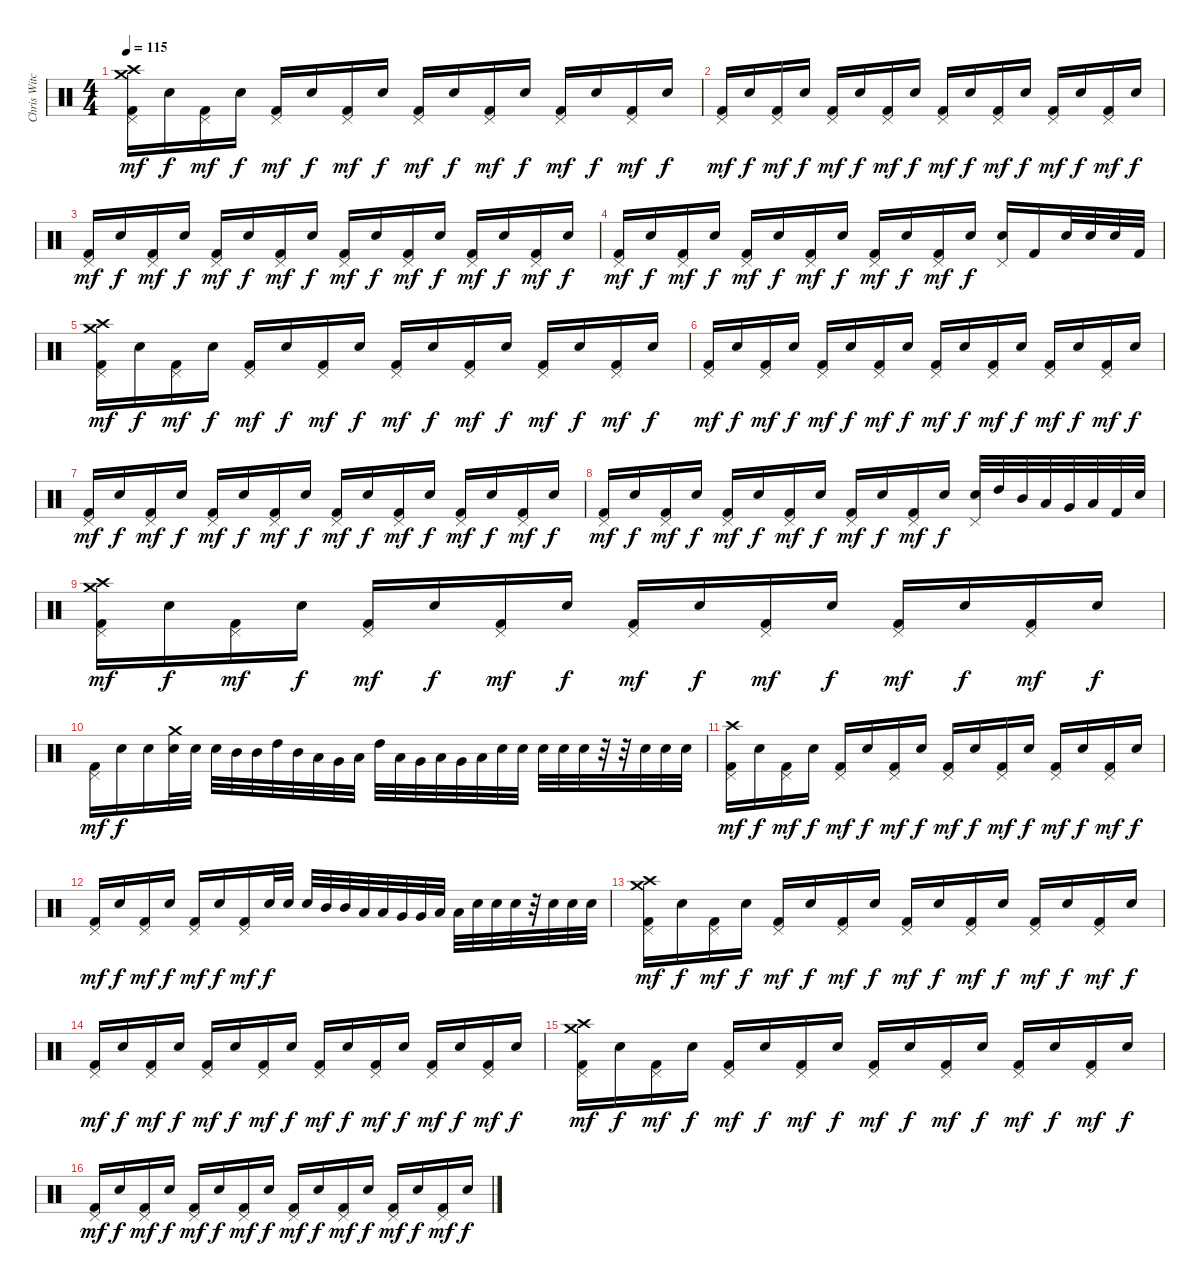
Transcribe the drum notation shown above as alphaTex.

\track ("Chris Witchhunter (Drums)" "Chris Witc") {instrument percussion}
\staff {score}
\articulation defaults
\ts (4 4)
\tempo 115
\clef neutral
\ks c
("Crash high (hit)" "Crash medium (hit)" "Pedal Hi-Hat (hit)" "Kick (hit) 2").16{dy mf} "Snare (hit) 2".16{dy f} ("Pedal Hi-Hat (hit)" "Kick (hit) 2").16{dy mf} "Snare (hit) 2".16{dy f} ("Pedal Hi-Hat (hit)" "Kick (hit) 2").16{dy mf} "Snare (hit) 2".16{dy f} ("Pedal Hi-Hat (hit)" "Kick (hit) 2").16{dy mf} "Snare (hit) 2".16{dy f} ("Pedal Hi-Hat (hit)" "Kick (hit) 2").16{dy mf} "Snare (hit) 2".16{dy f} ("Pedal Hi-Hat (hit)" "Kick (hit) 2").16{dy mf} "Snare (hit) 2".16{dy f} ("Pedal Hi-Hat (hit)" "Kick (hit) 2").16{dy mf} "Snare (hit) 2".16{dy f} ("Pedal Hi-Hat (hit)" "Kick (hit) 2").16{dy mf} "Snare (hit) 2".16{dy f} |
("Pedal Hi-Hat (hit)" "Kick (hit) 2").16{dy mf} "Snare (hit) 2".16{dy f} ("Pedal Hi-Hat (hit)" "Kick (hit) 2").16{dy mf} "Snare (hit) 2".16{dy f} ("Pedal Hi-Hat (hit)" "Kick (hit) 2").16{dy mf} "Snare (hit) 2".16{dy f} ("Pedal Hi-Hat (hit)" "Kick (hit) 2").16{dy mf} "Snare (hit) 2".16{dy f} ("Pedal Hi-Hat (hit)" "Kick (hit) 2").16{dy mf} "Snare (hit) 2".16{dy f} ("Pedal Hi-Hat (hit)" "Kick (hit) 2").16{dy mf} "Snare (hit) 2".16{dy f} ("Pedal Hi-Hat (hit)" "Kick (hit) 2").16{dy mf} "Snare (hit) 2".16{dy f} ("Pedal Hi-Hat (hit)" "Kick (hit) 2").16{dy mf} "Snare (hit) 2".16{dy f} |
("Pedal Hi-Hat (hit)" "Kick (hit) 2").16{dy mf} "Snare (hit) 2".16{dy f} ("Pedal Hi-Hat (hit)" "Kick (hit) 2").16{dy mf} "Snare (hit) 2".16{dy f} ("Pedal Hi-Hat (hit)" "Kick (hit) 2").16{dy mf} "Snare (hit) 2".16{dy f} ("Pedal Hi-Hat (hit)" "Kick (hit) 2").16{dy mf} "Snare (hit) 2".16{dy f} ("Pedal Hi-Hat (hit)" "Kick (hit) 2").16{dy mf} "Snare (hit) 2".16{dy f} ("Pedal Hi-Hat (hit)" "Kick (hit) 2").16{dy mf} "Snare (hit) 2".16{dy f} ("Pedal Hi-Hat (hit)" "Kick (hit) 2").16{dy mf} "Snare (hit) 2".16{dy f} ("Pedal Hi-Hat (hit)" "Kick (hit) 2").16{dy mf} "Snare (hit) 2".16{dy f} |
("Pedal Hi-Hat (hit)" "Kick (hit) 2").16{dy mf} "Snare (hit) 2".16{dy f} ("Pedal Hi-Hat (hit)" "Kick (hit) 2").16{dy mf} "Snare (hit) 2".16{dy f} ("Pedal Hi-Hat (hit)" "Kick (hit) 2").16{dy mf} "Snare (hit) 2".16{dy f} ("Pedal Hi-Hat (hit)" "Kick (hit) 2").16{dy mf} "Snare (hit) 2".16{dy f} ("Pedal Hi-Hat (hit)" "Kick (hit) 2").16{dy mf} "Snare (hit) 2".16{dy f} ("Pedal Hi-Hat (hit)" "Kick (hit) 2").16{dy mf} "Snare (hit) 2".16{dy f} ("Pedal Hi-Hat (hit)" "Snare (hit) 2").16 "Kick (hit) 2".16 "Snare (hit) 2".32 "Snare (hit) 2".32 "Snare (hit) 2".32 "Kick (hit) 2".32 |
("Crash high (hit)" "Crash medium (hit)" "Pedal Hi-Hat (hit)" "Kick (hit) 2").16{dy mf} "Snare (hit) 2".16{dy f} ("Pedal Hi-Hat (hit)" "Kick (hit) 2").16{dy mf} "Snare (hit) 2".16{dy f} ("Pedal Hi-Hat (hit)" "Kick (hit) 2").16{dy mf} "Snare (hit) 2".16{dy f} ("Pedal Hi-Hat (hit)" "Kick (hit) 2").16{dy mf} "Snare (hit) 2".16{dy f} ("Pedal Hi-Hat (hit)" "Kick (hit) 2").16{dy mf} "Snare (hit) 2".16{dy f} ("Pedal Hi-Hat (hit)" "Kick (hit) 2").16{dy mf} "Snare (hit) 2".16{dy f} ("Pedal Hi-Hat (hit)" "Kick (hit) 2").16{dy mf} "Snare (hit) 2".16{dy f} ("Pedal Hi-Hat (hit)" "Kick (hit) 2").16{dy mf} "Snare (hit) 2".16{dy f} |
("Pedal Hi-Hat (hit)" "Kick (hit) 2").16{dy mf} "Snare (hit) 2".16{dy f} ("Pedal Hi-Hat (hit)" "Kick (hit) 2").16{dy mf} "Snare (hit) 2".16{dy f} ("Pedal Hi-Hat (hit)" "Kick (hit) 2").16{dy mf} "Snare (hit) 2".16{dy f} ("Pedal Hi-Hat (hit)" "Kick (hit) 2").16{dy mf} "Snare (hit) 2".16{dy f} ("Pedal Hi-Hat (hit)" "Kick (hit) 2").16{dy mf} "Snare (hit) 2".16{dy f} ("Pedal Hi-Hat (hit)" "Kick (hit) 2").16{dy mf} "Snare (hit) 2".16{dy f} ("Pedal Hi-Hat (hit)" "Kick (hit) 2").16{dy mf} "Snare (hit) 2".16{dy f} ("Pedal Hi-Hat (hit)" "Kick (hit) 2").16{dy mf} "Snare (hit) 2".16{dy f} |
("Pedal Hi-Hat (hit)" "Kick (hit) 2").16{dy mf} "Snare (hit) 2".16{dy f} ("Pedal Hi-Hat (hit)" "Kick (hit) 2").16{dy mf} "Snare (hit) 2".16{dy f} ("Pedal Hi-Hat (hit)" "Kick (hit) 2").16{dy mf} "Snare (hit) 2".16{dy f} ("Pedal Hi-Hat (hit)" "Kick (hit) 2").16{dy mf} "Snare (hit) 2".16{dy f} ("Pedal Hi-Hat (hit)" "Kick (hit) 2").16{dy mf} "Snare (hit) 2".16{dy f} ("Pedal Hi-Hat (hit)" "Kick (hit) 2").16{dy mf} "Snare (hit) 2".16{dy f} ("Pedal Hi-Hat (hit)" "Kick (hit) 2").16{dy mf} "Snare (hit) 2".16{dy f} ("Pedal Hi-Hat (hit)" "Kick (hit) 2").16{dy mf} "Snare (hit) 2".16{dy f} |
("Pedal Hi-Hat (hit)" "Kick (hit) 2").16{dy mf} "Snare (hit) 2".16{dy f} ("Pedal Hi-Hat (hit)" "Kick (hit) 2").16{dy mf} "Snare (hit) 2".16{dy f} ("Pedal Hi-Hat (hit)" "Kick (hit) 2").16{dy mf} "Snare (hit) 2".16{dy f} ("Pedal Hi-Hat (hit)" "Kick (hit) 2").16{dy mf} "Snare (hit) 2".16{dy f} ("Pedal Hi-Hat (hit)" "Kick (hit) 2").16{dy mf} "Snare (hit) 2".16{dy f} ("Pedal Hi-Hat (hit)" "Kick (hit) 2").16{dy mf} "Snare (hit) 2".16{dy f} ("Pedal Hi-Hat (hit)" "Snare (hit) 2").32 "High Tom (hit)".32 "Mid Tom (hit)".32 "Low Tom (hit)".32 "Very Low Tom (hit)".32 "Low Floor Tom (hit)".32 "Kick (hit) 2".32 "Snare (hit) 2".32 |
("Crash high (hit)" "Crash medium (hit)" "Pedal Hi-Hat (hit)" "Kick (hit) 2").16{dy mf} "Snare (hit) 2".16{dy f} ("Pedal Hi-Hat (hit)" "Kick (hit) 2").16{dy mf} "Snare (hit) 2".16{dy f} ("Pedal Hi-Hat (hit)" "Kick (hit) 2").16{dy mf} "Snare (hit) 2".16{dy f} ("Pedal Hi-Hat (hit)" "Kick (hit) 2").16{dy mf} "Snare (hit) 2".16{dy f} ("Pedal Hi-Hat (hit)" "Kick (hit) 2").16{dy mf} "Snare (hit) 2".16{dy f} ("Pedal Hi-Hat (hit)" "Kick (hit) 2").16{dy mf} "Snare (hit) 2".16{dy f} ("Pedal Hi-Hat (hit)" "Kick (hit) 2").16{dy mf} "Snare (hit) 2".16{dy f} ("Pedal Hi-Hat (hit)" "Kick (hit) 2").16{dy mf} "Snare (hit) 2".16{dy f} |
("Pedal Hi-Hat (hit)" "Kick (hit) 2").16{dy mf} "Snare (hit) 2".16{dy f} "Snare (hit) 2".16 ("Crash medium (hit)" "Snare (hit) 2").32 "Snare (hit) 2".32 "Snare (hit) 2".32 "Mid Tom (hit)".32 "Mid Tom (hit)".32 "High Tom (hit)".32 "Mid Tom (hit)".32 "Low Tom (hit)".32 "Very Low Tom (hit)".32 "Low Floor Tom (hit)".32 "High Tom (hit)".32 "Low Tom (hit)".32 "Very Low Tom (hit)".32 "Low Floor Tom (hit)".32 "Very Low Tom (hit)".32 "Low Floor Tom (hit)".32 "Snare (hit) 2".32 "Snare (hit) 2".32 "Snare (hit) 2".32 "Snare (hit) 2".32 "Snare (hit) 2".32 r.32 r.32 "Snare (hit) 2".32 "Snare (hit) 2".32 "Snare (hit) 2".32 |
("Crash high (hit)" "Pedal Hi-Hat (hit)" "Kick (hit) 2").16{dy mf} "Snare (hit) 2".16{dy f} ("Pedal Hi-Hat (hit)" "Kick (hit) 2").16{dy mf} "Snare (hit) 2".16{dy f} ("Pedal Hi-Hat (hit)" "Kick (hit) 2").16{dy mf} "Snare (hit) 2".16{dy f} ("Pedal Hi-Hat (hit)" "Kick (hit) 2").16{dy mf} "Snare (hit) 2".16{dy f} ("Pedal Hi-Hat (hit)" "Kick (hit) 2").16{dy mf} "Snare (hit) 2".16{dy f} ("Pedal Hi-Hat (hit)" "Kick (hit) 2").16{dy mf} "Snare (hit) 2".16{dy f} ("Pedal Hi-Hat (hit)" "Kick (hit) 2").16{dy mf} "Snare (hit) 2".16{dy f} ("Pedal Hi-Hat (hit)" "Kick (hit) 2").16{dy mf} "Snare (hit) 2".16{dy f} |
("Pedal Hi-Hat (hit)" "Kick (hit) 2").16{dy mf} "Snare (hit) 2".16{dy f} ("Pedal Hi-Hat (hit)" "Kick (hit) 2").16{dy mf} "Snare (hit) 2".16{dy f} ("Pedal Hi-Hat (hit)" "Kick (hit) 2").16{dy mf} "Snare (hit) 2".16{dy f} ("Pedal Hi-Hat (hit)" "Kick (hit) 2").16{dy mf} "Snare (hit) 2".32{dy f} "Snare (hit) 2".32 "Snare (hit) 2".32 "Mid Tom (hit)".32 "Mid Tom (hit)".32 "Low Tom (hit)".32 "Low Tom (hit)".32 "Very Low Tom (hit)".32 "Very Low Tom (hit)".32 "Low Floor Tom (hit)".32 "Low Floor Tom (hit)".32 "Snare (hit) 2".32 "Snare (hit) 2".32 "Snare (hit) 2".32 r.32 "Snare (hit) 2".32 "Snare (hit) 2".32 "Snare (hit) 2".32 |
("Crash high (hit)" "Crash medium (hit)" "Pedal Hi-Hat (hit)" "Kick (hit) 2").16{dy mf} "Snare (hit) 2".16{dy f} ("Pedal Hi-Hat (hit)" "Kick (hit) 2").16{dy mf} "Snare (hit) 2".16{dy f} ("Pedal Hi-Hat (hit)" "Kick (hit) 2").16{dy mf} "Snare (hit) 2".16{dy f} ("Pedal Hi-Hat (hit)" "Kick (hit) 2").16{dy mf} "Snare (hit) 2".16{dy f} ("Pedal Hi-Hat (hit)" "Kick (hit) 2").16{dy mf} "Snare (hit) 2".16{dy f} ("Pedal Hi-Hat (hit)" "Kick (hit) 2").16{dy mf} "Snare (hit) 2".16{dy f} ("Pedal Hi-Hat (hit)" "Kick (hit) 2").16{dy mf} "Snare (hit) 2".16{dy f} ("Pedal Hi-Hat (hit)" "Kick (hit) 2").16{dy mf} "Snare (hit) 2".16{dy f} |
("Pedal Hi-Hat (hit)" "Kick (hit) 2").16{dy mf} "Snare (hit) 2".16{dy f} ("Pedal Hi-Hat (hit)" "Kick (hit) 2").16{dy mf} "Snare (hit) 2".16{dy f} ("Pedal Hi-Hat (hit)" "Kick (hit) 2").16{dy mf} "Snare (hit) 2".16{dy f} ("Pedal Hi-Hat (hit)" "Kick (hit) 2").16{dy mf} "Snare (hit) 2".16{dy f} ("Pedal Hi-Hat (hit)" "Kick (hit) 2").16{dy mf} "Snare (hit) 2".16{dy f} ("Pedal Hi-Hat (hit)" "Kick (hit) 2").16{dy mf} "Snare (hit) 2".16{dy f} ("Pedal Hi-Hat (hit)" "Kick (hit) 2").16{dy mf} "Snare (hit) 2".16{dy f} ("Pedal Hi-Hat (hit)" "Kick (hit) 2").16{dy mf} "Snare (hit) 2".16{dy f} |
("Crash high (hit)" "Crash medium (hit)" "Pedal Hi-Hat (hit)" "Kick (hit) 2").16{dy mf} "Snare (hit) 2".16{dy f} ("Pedal Hi-Hat (hit)" "Kick (hit) 2").16{dy mf} "Snare (hit) 2".16{dy f} ("Pedal Hi-Hat (hit)" "Kick (hit) 2").16{dy mf} "Snare (hit) 2".16{dy f} ("Pedal Hi-Hat (hit)" "Kick (hit) 2").16{dy mf} "Snare (hit) 2".16{dy f} ("Pedal Hi-Hat (hit)" "Kick (hit) 2").16{dy mf} "Snare (hit) 2".16{dy f} ("Pedal Hi-Hat (hit)" "Kick (hit) 2").16{dy mf} "Snare (hit) 2".16{dy f} ("Pedal Hi-Hat (hit)" "Kick (hit) 2").16{dy mf} "Snare (hit) 2".16{dy f} ("Pedal Hi-Hat (hit)" "Kick (hit) 2").16{dy mf} "Snare (hit) 2".16{dy f} |
("Pedal Hi-Hat (hit)" "Kick (hit) 2").16{dy mf} "Snare (hit) 2".16{dy f} ("Pedal Hi-Hat (hit)" "Kick (hit) 2").16{dy mf} "Snare (hit) 2".16{dy f} ("Pedal Hi-Hat (hit)" "Kick (hit) 2").16{dy mf} "Snare (hit) 2".16{dy f} ("Pedal Hi-Hat (hit)" "Kick (hit) 2").16{dy mf} "Snare (hit) 2".16{dy f} ("Pedal Hi-Hat (hit)" "Kick (hit) 2").16{dy mf} "Snare (hit) 2".16{dy f} ("Pedal Hi-Hat (hit)" "Kick (hit) 2").16{dy mf} "Snare (hit) 2".16{dy f} ("Pedal Hi-Hat (hit)" "Kick (hit) 2").16{dy mf} "Snare (hit) 2".16{dy f} ("Pedal Hi-Hat (hit)" "Kick (hit) 2").16{dy mf} "Snare (hit) 2".16{dy f}
